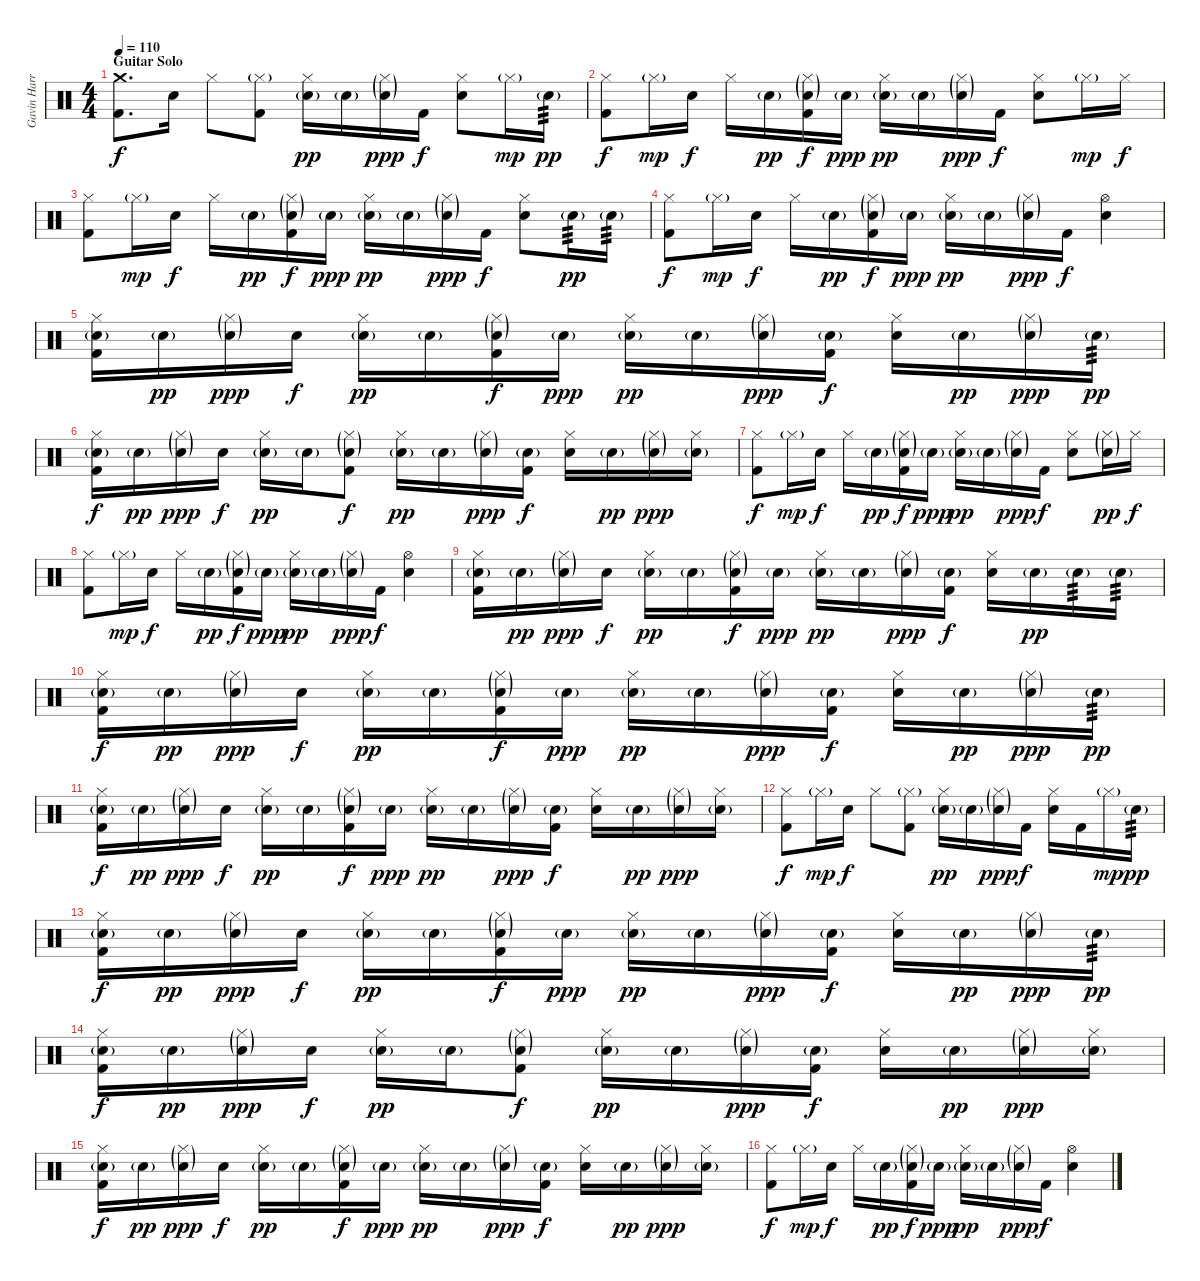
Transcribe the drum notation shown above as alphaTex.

\track ("Gavin Harrison - Drums" "Gavin Harr") {instrument percussion}
\staff {score}
\articulation defaults
\ts (4 4)
\section ("" "Guitar Solo")
\tempo 110
\clef neutral
\ks c
("Crash medium (hit)" "Kick (hit) 2").8{d dy f} "Electric Snare (hit)".16 "Hi-Hat (closed)".8 ("Hi-Hat (closed)"{g} "Kick (hit) 2").8 ("Hi-Hat (closed)" "Electric Snare (hit)"{g}).16{dy pp} "Electric Snare (hit)"{g}.16 ("Hi-Hat (closed)"{g} "Electric Snare (hit)"{g}).16{dy ppp} "Kick (hit) 2".16{dy f} ("Hi-Hat (closed)" "Electric Snare (hit)").8 "Hi-Hat (closed)"{g}.16{dy mp} "Electric Snare (hit)"{g}.16{tp 3 dy pp} |
("Hi-Hat (closed)" "Kick (hit) 2").8{dy f} "Hi-Hat (closed)"{g}.16{dy mp} "Electric Snare (hit)".16{dy f} "Hi-Hat (closed)".16 "Electric Snare (hit)"{g}.16{dy pp} ("Hi-Hat (closed)"{g} "Electric Snare (hit)"{g} "Kick (hit) 2").16{dy f} "Electric Snare (hit)"{g}.16{dy ppp} ("Hi-Hat (closed)" "Electric Snare (hit)"{g}).16{dy pp} "Electric Snare (hit)"{g}.16 ("Hi-Hat (closed)"{g} "Electric Snare (hit)"{g}).16{dy ppp} "Kick (hit) 2".16{dy f} ("Hi-Hat (closed)" "Electric Snare (hit)").8 "Hi-Hat (closed)"{g}.16{dy mp} "Hi-Hat (closed)".16{dy f} |
("Hi-Hat (closed)" "Kick (hit) 2").8 "Hi-Hat (closed)"{g}.16{dy mp} "Electric Snare (hit)".16{dy f} "Hi-Hat (closed)".16 "Electric Snare (hit)"{g}.16{dy pp} ("Hi-Hat (closed)"{g} "Electric Snare (hit)"{g} "Kick (hit) 2").16{dy f} "Electric Snare (hit)"{g}.16{dy ppp} ("Hi-Hat (closed)" "Electric Snare (hit)"{g}).16{dy pp} "Electric Snare (hit)"{g}.16 ("Hi-Hat (closed)"{g} "Electric Snare (hit)"{g}).16{dy ppp} "Kick (hit) 2".16{dy f} ("Hi-Hat (closed)" "Electric Snare (hit)").8 "Electric Snare (hit)"{g}.16{tp 3 dy pp} "Electric Snare (hit)"{g}.16{tp 3} |
("Hi-Hat (closed)" "Kick (hit) 2").8{dy f} "Hi-Hat (closed)"{g}.16{dy mp} "Electric Snare (hit)".16{dy f} "Hi-Hat (closed)".16 "Electric Snare (hit)"{g}.16{dy pp} ("Hi-Hat (closed)"{g} "Electric Snare (hit)"{g} "Kick (hit) 2").16{dy f} "Electric Snare (hit)"{g}.16{dy ppp} ("Hi-Hat (closed)" "Electric Snare (hit)"{g}).16{dy pp} "Electric Snare (hit)"{g}.16 ("Hi-Hat (closed)"{g} "Electric Snare (hit)"{g}).16{dy ppp} "Kick (hit) 2".16{dy f} ("Hi-Hat (open)" "Electric Snare (hit)").4 |
("Hi-Hat (closed)" "Electric Snare (hit)"{g} "Kick (hit) 2").16 "Electric Snare (hit)"{g}.16{dy pp} ("Hi-Hat (closed)"{g} "Electric Snare (hit)"{g}).16{dy ppp} "Electric Snare (hit)".16{dy f} ("Hi-Hat (closed)" "Electric Snare (hit)"{g}).16{dy pp} "Electric Snare (hit)"{g}.16 ("Hi-Hat (closed)"{g} "Electric Snare (hit)"{g} "Kick (hit) 2").16{dy f} "Electric Snare (hit)"{g}.16{dy ppp} ("Hi-Hat (closed)" "Electric Snare (hit)"{g}).16{dy pp} "Electric Snare (hit)"{g}.16 ("Hi-Hat (closed)"{g} "Electric Snare (hit)"{g}).16{dy ppp} ("Electric Snare (hit)"{g} "Kick (hit) 2").16{dy f} ("Hi-Hat (closed)" "Electric Snare (hit)").16 "Electric Snare (hit)"{g}.16{dy pp} ("Hi-Hat (closed)"{g} "Electric Snare (hit)"{g}).16{dy ppp} "Electric Snare (hit)"{g}.16{tp 3 dy pp} |
("Hi-Hat (closed)" "Electric Snare (hit)"{g} "Kick (hit) 2").16{dy f} "Electric Snare (hit)"{g}.16{dy pp} ("Hi-Hat (closed)"{g} "Electric Snare (hit)"{g}).16{dy ppp} "Electric Snare (hit)".16{dy f} ("Hi-Hat (closed)" "Electric Snare (hit)"{g}).16{dy pp} "Electric Snare (hit)"{g}.16 ("Hi-Hat (closed)"{g} "Electric Snare (hit)"{g} "Kick (hit) 2").8{dy f} ("Hi-Hat (closed)" "Electric Snare (hit)"{g}).16{dy pp} "Electric Snare (hit)"{g}.16 ("Hi-Hat (closed)"{g} "Electric Snare (hit)"{g}).16{dy ppp} ("Electric Snare (hit)"{g} "Kick (hit) 2").16{dy f} ("Hi-Hat (closed)" "Electric Snare (hit)").16 "Electric Snare (hit)"{g}.16{dy pp} ("Hi-Hat (closed)"{g} "Electric Snare (hit)"{g}).16{dy ppp} ("Hi-Hat (closed)" "Electric Snare (hit)"{g}).16 |
("Hi-Hat (closed)" "Kick (hit) 2").8{dy f} "Hi-Hat (closed)"{g}.16{dy mp} "Electric Snare (hit)".16{dy f} "Hi-Hat (closed)".16 "Electric Snare (hit)"{g}.16{dy pp} ("Hi-Hat (closed)"{g} "Electric Snare (hit)"{g} "Kick (hit) 2").16{dy f} "Electric Snare (hit)"{g}.16{dy ppp} ("Hi-Hat (closed)" "Electric Snare (hit)"{g}).16{dy pp} "Electric Snare (hit)"{g}.16 ("Hi-Hat (closed)"{g} "Electric Snare (hit)"{g}).16{dy ppp} "Kick (hit) 2".16{dy f} ("Hi-Hat (closed)" "Electric Snare (hit)").8 ("Hi-Hat (closed)"{g} "Electric Snare (hit)"{g}).16{dy pp} "Hi-Hat (closed)".16{dy f} |
("Hi-Hat (closed)" "Kick (hit) 2").8 "Hi-Hat (closed)"{g}.16{dy mp} "Electric Snare (hit)".16{dy f} "Hi-Hat (closed)".16 "Electric Snare (hit)"{g}.16{dy pp} ("Hi-Hat (closed)"{g} "Electric Snare (hit)"{g} "Kick (hit) 2").16{dy f} "Electric Snare (hit)"{g}.16{dy ppp} ("Hi-Hat (closed)" "Electric Snare (hit)"{g}).16{dy pp} "Electric Snare (hit)"{g}.16 ("Hi-Hat (closed)"{g} "Electric Snare (hit)"{g}).16{dy ppp} "Kick (hit) 2".16{dy f} ("Hi-Hat (open)" "Electric Snare (hit)").4 |
("Hi-Hat (closed)" "Electric Snare (hit)"{g} "Kick (hit) 2").16 "Electric Snare (hit)"{g}.16{dy pp} ("Hi-Hat (closed)"{g} "Electric Snare (hit)"{g}).16{dy ppp} "Electric Snare (hit)".16{dy f} ("Hi-Hat (closed)" "Electric Snare (hit)"{g}).16{dy pp} "Electric Snare (hit)"{g}.16 ("Hi-Hat (closed)"{g} "Electric Snare (hit)"{g} "Kick (hit) 2").16{dy f} "Electric Snare (hit)"{g}.16{dy ppp} ("Hi-Hat (closed)" "Electric Snare (hit)"{g}).16{dy pp} "Electric Snare (hit)"{g}.16 ("Hi-Hat (closed)"{g} "Electric Snare (hit)"{g}).16{dy ppp} ("Electric Snare (hit)"{g} "Kick (hit) 2").16{dy f} ("Hi-Hat (closed)" "Electric Snare (hit)").16 "Electric Snare (hit)"{g}.16{dy pp} "Electric Snare (hit)"{g}.16{tp 3} "Electric Snare (hit)"{g}.16{tp 3} |
("Hi-Hat (closed)" "Electric Snare (hit)"{g} "Kick (hit) 2").16{dy f} "Electric Snare (hit)"{g}.16{dy pp} ("Hi-Hat (closed)"{g} "Electric Snare (hit)"{g}).16{dy ppp} "Electric Snare (hit)".16{dy f} ("Hi-Hat (closed)" "Electric Snare (hit)"{g}).16{dy pp} "Electric Snare (hit)"{g}.16 ("Hi-Hat (closed)"{g} "Electric Snare (hit)"{g} "Kick (hit) 2").16{dy f} "Electric Snare (hit)"{g}.16{dy ppp} ("Hi-Hat (closed)" "Electric Snare (hit)"{g}).16{dy pp} "Electric Snare (hit)"{g}.16 ("Hi-Hat (closed)"{g} "Electric Snare (hit)"{g}).16{dy ppp} ("Electric Snare (hit)"{g} "Kick (hit) 2").16{dy f} ("Hi-Hat (closed)" "Electric Snare (hit)").16 "Electric Snare (hit)"{g}.16{dy pp} ("Hi-Hat (closed)"{g} "Electric Snare (hit)"{g}).16{dy ppp} "Electric Snare (hit)"{g}.16{tp 3 dy pp} |
("Hi-Hat (closed)" "Electric Snare (hit)"{g} "Kick (hit) 2").16{dy f} "Electric Snare (hit)"{g}.16{dy pp} ("Hi-Hat (closed)"{g} "Electric Snare (hit)"{g}).16{dy ppp} "Electric Snare (hit)".16{dy f} ("Hi-Hat (closed)" "Electric Snare (hit)"{g}).16{dy pp} "Electric Snare (hit)"{g}.16 ("Hi-Hat (closed)"{g} "Electric Snare (hit)"{g} "Kick (hit) 2").16{dy f} "Electric Snare (hit)"{g}.16{dy ppp} ("Hi-Hat (closed)" "Electric Snare (hit)"{g}).16{dy pp} "Electric Snare (hit)"{g}.16 ("Hi-Hat (closed)"{g} "Electric Snare (hit)"{g}).16{dy ppp} ("Electric Snare (hit)"{g} "Kick (hit) 2").16{dy f} ("Hi-Hat (closed)" "Electric Snare (hit)").16 "Electric Snare (hit)"{g}.16{dy pp} ("Hi-Hat (closed)"{g} "Electric Snare (hit)"{g}).16{dy ppp} ("Hi-Hat (closed)" "Electric Snare (hit)"{g}).16 |
("Hi-Hat (closed)" "Kick (hit) 2").8{dy f} "Hi-Hat (closed)"{g}.16{dy mp} "Electric Snare (hit)".16{dy f} "Hi-Hat (closed)".8 ("Hi-Hat (closed)"{g} "Kick (hit) 2").8 ("Hi-Hat (closed)" "Electric Snare (hit)"{g}).16{dy pp} "Electric Snare (hit)"{g}.16 ("Hi-Hat (closed)"{g} "Electric Snare (hit)"{g}).16{dy ppp} "Kick (hit) 2".16{dy f} ("Hi-Hat (closed)" "Electric Snare (hit)").16 "Kick (hit) 2".16 "Hi-Hat (closed)"{g}.16{dy mp} "Electric Snare (hit)"{g}.16{tp 3 dy pp} |
("Hi-Hat (closed)" "Electric Snare (hit)"{g} "Kick (hit) 2").16{dy f} "Electric Snare (hit)"{g}.16{dy pp} ("Hi-Hat (closed)"{g} "Electric Snare (hit)"{g}).16{dy ppp} "Electric Snare (hit)".16{dy f} ("Hi-Hat (closed)" "Electric Snare (hit)"{g}).16{dy pp} "Electric Snare (hit)"{g}.16 ("Hi-Hat (closed)"{g} "Electric Snare (hit)"{g} "Kick (hit) 2").16{dy f} "Electric Snare (hit)"{g}.16{dy ppp} ("Hi-Hat (closed)" "Electric Snare (hit)"{g}).16{dy pp} "Electric Snare (hit)"{g}.16 ("Hi-Hat (closed)"{g} "Electric Snare (hit)"{g}).16{dy ppp} ("Electric Snare (hit)"{g} "Kick (hit) 2").16{dy f} ("Hi-Hat (closed)" "Electric Snare (hit)").16 "Electric Snare (hit)"{g}.16{dy pp} ("Hi-Hat (closed)"{g} "Electric Snare (hit)"{g}).16{dy ppp} "Electric Snare (hit)"{g}.16{tp 3 dy pp} |
("Hi-Hat (closed)" "Electric Snare (hit)"{g} "Kick (hit) 2").16{dy f} "Electric Snare (hit)"{g}.16{dy pp} ("Hi-Hat (closed)"{g} "Electric Snare (hit)"{g}).16{dy ppp} "Electric Snare (hit)".16{dy f} ("Hi-Hat (closed)" "Electric Snare (hit)"{g}).16{dy pp} "Electric Snare (hit)"{g}.16 ("Hi-Hat (closed)"{g} "Electric Snare (hit)"{g} "Kick (hit) 2").8{dy f} ("Hi-Hat (closed)" "Electric Snare (hit)"{g}).16{dy pp} "Electric Snare (hit)"{g}.16 ("Hi-Hat (closed)"{g} "Electric Snare (hit)"{g}).16{dy ppp} ("Electric Snare (hit)"{g} "Kick (hit) 2").16{dy f} ("Hi-Hat (closed)" "Electric Snare (hit)").16 "Electric Snare (hit)"{g}.16{dy pp} ("Hi-Hat (closed)"{g} "Electric Snare (hit)"{g}).16{dy ppp} ("Hi-Hat (closed)" "Electric Snare (hit)"{g}).16 |
("Hi-Hat (closed)" "Electric Snare (hit)"{g} "Kick (hit) 2").16{dy f} "Electric Snare (hit)"{g}.16{dy pp} ("Hi-Hat (closed)"{g} "Electric Snare (hit)"{g}).16{dy ppp} "Electric Snare (hit)".16{dy f} ("Hi-Hat (closed)" "Electric Snare (hit)"{g}).16{dy pp} "Electric Snare (hit)"{g}.16 ("Hi-Hat (closed)"{g} "Electric Snare (hit)"{g} "Kick (hit) 2").16{dy f} "Electric Snare (hit)"{g}.16{dy ppp} ("Hi-Hat (closed)" "Electric Snare (hit)"{g}).16{dy pp} "Electric Snare (hit)"{g}.16 ("Hi-Hat (closed)"{g} "Electric Snare (hit)"{g}).16{dy ppp} ("Electric Snare (hit)"{g} "Kick (hit) 2").16{dy f} ("Hi-Hat (closed)" "Electric Snare (hit)").16 "Electric Snare (hit)"{g}.16{dy pp} ("Hi-Hat (closed)"{g} "Electric Snare (hit)"{g}).16{dy ppp} ("Hi-Hat (closed)" "Electric Snare (hit)"{g}).16 |
("Hi-Hat (closed)" "Kick (hit) 2").8{dy f} "Hi-Hat (closed)"{g}.16{dy mp} "Electric Snare (hit)".16{dy f} "Hi-Hat (closed)".16 "Electric Snare (hit)"{g}.16{dy pp} ("Hi-Hat (closed)"{g} "Electric Snare (hit)"{g} "Kick (hit) 2").16{dy f} "Electric Snare (hit)"{g}.16{dy ppp} ("Hi-Hat (closed)" "Electric Snare (hit)"{g}).16{dy pp} "Electric Snare (hit)"{g}.16 ("Hi-Hat (closed)"{g} "Electric Snare (hit)"{g}).16{dy ppp} "Kick (hit) 2".16{dy f} ("Hi-Hat (open)" "Electric Snare (hit)").4
